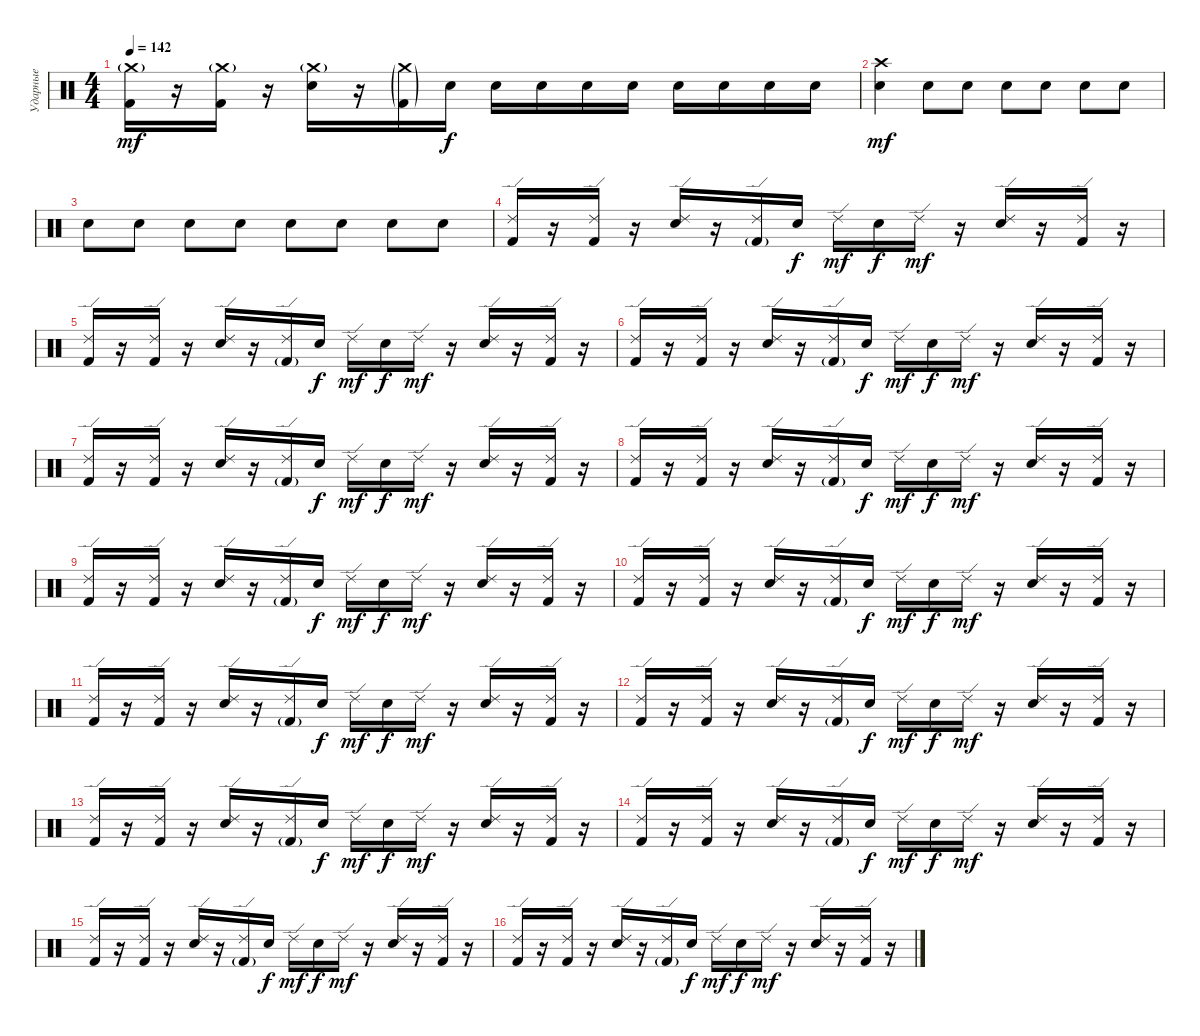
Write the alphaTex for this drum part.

\track ("Ударные" "Ударные") {instrument percussion}
\staff {score}
\articulation defaults
\ts (4 4)
\tempo 142
\clef neutral
\ks c
("Kick (hit) 2" "Crash medium (hit)"{g}).16{dy mf} r.16 ("Kick (hit) 2" "Crash medium (hit)"{g}).16 r.16 ("Electric Snare (hit)" "Crash medium (hit)"{g}).16 r.16 ("Kick (hit) 2"{g} "Crash medium (hit)"{g}).16 "Electric Snare (hit)".16{dy f} "Electric Snare (hit)".16 "Electric Snare (hit)".16 "Electric Snare (hit)".16 "Electric Snare (hit)".16 "Electric Snare (hit)".16 "Electric Snare (hit)".16 "Electric Snare (hit)".16 "Electric Snare (hit)".16 |
("Electric Snare (hit)" "Crash high (hit)").4{dy mf} "Electric Snare (hit)".8 "Electric Snare (hit)".8 "Electric Snare (hit)".8 "Electric Snare (hit)".8 "Electric Snare (hit)".8 "Electric Snare (hit)".8 |
"Electric Snare (hit)".8 "Electric Snare (hit)".8 "Electric Snare (hit)".8 "Electric Snare (hit)".8 "Electric Snare (hit)".8 "Electric Snare (hit)".8 "Electric Snare (hit)".8 "Electric Snare (hit)".8 |
("Kick (hit) 2" "Ride (edge) 2").16 r.16 ("Kick (hit) 2" "Ride (edge) 2").16 r.16 ("Electric Snare (hit)" "Ride (edge) 2").16 r.16 ("Kick (hit) 2"{g} "Ride (edge) 2").16 "Electric Snare (hit)".16{dy f} "Ride (edge) 2".16{dy mf} "Electric Snare (hit)".16{dy f} "Ride (edge) 2".16{dy mf} r.16 ("Electric Snare (hit)" "Ride (edge) 2").16 r.16 ("Kick (hit) 2" "Ride (edge) 2").16 r.16 |
("Kick (hit) 2" "Ride (edge) 2").16 r.16 ("Kick (hit) 2" "Ride (edge) 2").16 r.16 ("Electric Snare (hit)" "Ride (edge) 2").16 r.16 ("Kick (hit) 2"{g} "Ride (edge) 2").16 "Electric Snare (hit)".16{dy f} "Ride (edge) 2".16{dy mf} "Electric Snare (hit)".16{dy f} "Ride (edge) 2".16{dy mf} r.16 ("Electric Snare (hit)" "Ride (edge) 2").16 r.16 ("Kick (hit) 2" "Ride (edge) 2").16 r.16 |
("Kick (hit) 2" "Ride (edge) 2").16 r.16 ("Kick (hit) 2" "Ride (edge) 2").16 r.16 ("Electric Snare (hit)" "Ride (edge) 2").16 r.16 ("Kick (hit) 2"{g} "Ride (edge) 2").16 "Electric Snare (hit)".16{dy f} "Ride (edge) 2".16{dy mf} "Electric Snare (hit)".16{dy f} "Ride (edge) 2".16{dy mf} r.16 ("Electric Snare (hit)" "Ride (edge) 2").16 r.16 ("Kick (hit) 2" "Ride (edge) 2").16 r.16 |
("Kick (hit) 2" "Ride (edge) 2").16 r.16 ("Kick (hit) 2" "Ride (edge) 2").16 r.16 ("Electric Snare (hit)" "Ride (edge) 2").16 r.16 ("Kick (hit) 2"{g} "Ride (edge) 2").16 "Electric Snare (hit)".16{dy f} "Ride (edge) 2".16{dy mf} "Electric Snare (hit)".16{dy f} "Ride (edge) 2".16{dy mf} r.16 ("Electric Snare (hit)" "Ride (edge) 2").16 r.16 ("Kick (hit) 2" "Ride (edge) 2").16 r.16 |
("Kick (hit) 2" "Ride (edge) 2").16 r.16 ("Kick (hit) 2" "Ride (edge) 2").16 r.16 ("Electric Snare (hit)" "Ride (edge) 2").16 r.16 ("Kick (hit) 2"{g} "Ride (edge) 2").16 "Electric Snare (hit)".16{dy f} "Ride (edge) 2".16{dy mf} "Electric Snare (hit)".16{dy f} "Ride (edge) 2".16{dy mf} r.16 ("Electric Snare (hit)" "Ride (edge) 2").16 r.16 ("Kick (hit) 2" "Ride (edge) 2").16 r.16 |
("Kick (hit) 2" "Ride (edge) 2").16 r.16 ("Kick (hit) 2" "Ride (edge) 2").16 r.16 ("Electric Snare (hit)" "Ride (edge) 2").16 r.16 ("Kick (hit) 2"{g} "Ride (edge) 2").16 "Electric Snare (hit)".16{dy f} "Ride (edge) 2".16{dy mf} "Electric Snare (hit)".16{dy f} "Ride (edge) 2".16{dy mf} r.16 ("Electric Snare (hit)" "Ride (edge) 2").16 r.16 ("Kick (hit) 2" "Ride (edge) 2").16 r.16 |
("Kick (hit) 2" "Ride (edge) 2").16 r.16 ("Kick (hit) 2" "Ride (edge) 2").16 r.16 ("Electric Snare (hit)" "Ride (edge) 2").16 r.16 ("Kick (hit) 2"{g} "Ride (edge) 2").16 "Electric Snare (hit)".16{dy f} "Ride (edge) 2".16{dy mf} "Electric Snare (hit)".16{dy f} "Ride (edge) 2".16{dy mf} r.16 ("Electric Snare (hit)" "Ride (edge) 2").16 r.16 ("Kick (hit) 2" "Ride (edge) 2").16 r.16 |
("Kick (hit) 2" "Ride (edge) 2").16 r.16 ("Kick (hit) 2" "Ride (edge) 2").16 r.16 ("Electric Snare (hit)" "Ride (edge) 2").16 r.16 ("Kick (hit) 2"{g} "Ride (edge) 2").16 "Electric Snare (hit)".16{dy f} "Ride (edge) 2".16{dy mf} "Electric Snare (hit)".16{dy f} "Ride (edge) 2".16{dy mf} r.16 ("Electric Snare (hit)" "Ride (edge) 2").16 r.16 ("Kick (hit) 2" "Ride (edge) 2").16 r.16 |
("Kick (hit) 2" "Ride (edge) 2").16 r.16 ("Kick (hit) 2" "Ride (edge) 2").16 r.16 ("Electric Snare (hit)" "Ride (edge) 2").16 r.16 ("Kick (hit) 2"{g} "Ride (edge) 2").16 "Electric Snare (hit)".16{dy f} "Ride (edge) 2".16{dy mf} "Electric Snare (hit)".16{dy f} "Ride (edge) 2".16{dy mf} r.16 ("Electric Snare (hit)" "Ride (edge) 2").16 r.16 ("Kick (hit) 2" "Ride (edge) 2").16 r.16 |
("Kick (hit) 2" "Ride (edge) 2").16 r.16 ("Kick (hit) 2" "Ride (edge) 2").16 r.16 ("Electric Snare (hit)" "Ride (edge) 2").16 r.16 ("Kick (hit) 2"{g} "Ride (edge) 2").16 "Electric Snare (hit)".16{dy f} "Ride (edge) 2".16{dy mf} "Electric Snare (hit)".16{dy f} "Ride (edge) 2".16{dy mf} r.16 ("Electric Snare (hit)" "Ride (edge) 2").16 r.16 ("Kick (hit) 2" "Ride (edge) 2").16 r.16 |
("Kick (hit) 2" "Ride (edge) 2").16 r.16 ("Kick (hit) 2" "Ride (edge) 2").16 r.16 ("Electric Snare (hit)" "Ride (edge) 2").16 r.16 ("Kick (hit) 2"{g} "Ride (edge) 2").16 "Electric Snare (hit)".16{dy f} "Ride (edge) 2".16{dy mf} "Electric Snare (hit)".16{dy f} "Ride (edge) 2".16{dy mf} r.16 ("Electric Snare (hit)" "Ride (edge) 2").16 r.16 ("Kick (hit) 2" "Ride (edge) 2").16 r.16 |
("Kick (hit) 2" "Ride (edge) 2").16 r.16 ("Kick (hit) 2" "Ride (edge) 2").16 r.16 ("Electric Snare (hit)" "Ride (edge) 2").16 r.16 ("Kick (hit) 2"{g} "Ride (edge) 2").16 "Electric Snare (hit)".16{dy f} "Ride (edge) 2".16{dy mf} "Electric Snare (hit)".16{dy f} "Ride (edge) 2".16{dy mf} r.16 ("Electric Snare (hit)" "Ride (edge) 2").16 r.16 ("Kick (hit) 2" "Ride (edge) 2").16 r.16 |
("Kick (hit) 2" "Ride (edge) 2").16 r.16 ("Kick (hit) 2" "Ride (edge) 2").16 r.16 ("Electric Snare (hit)" "Ride (edge) 2").16 r.16 ("Kick (hit) 2"{g} "Ride (edge) 2").16 "Electric Snare (hit)".16{dy f} "Ride (edge) 2".16{dy mf} "Electric Snare (hit)".16{dy f} "Ride (edge) 2".16{dy mf} r.16 ("Electric Snare (hit)" "Ride (edge) 2").16 r.16 ("Kick (hit) 2" "Ride (edge) 2").16 r.16
